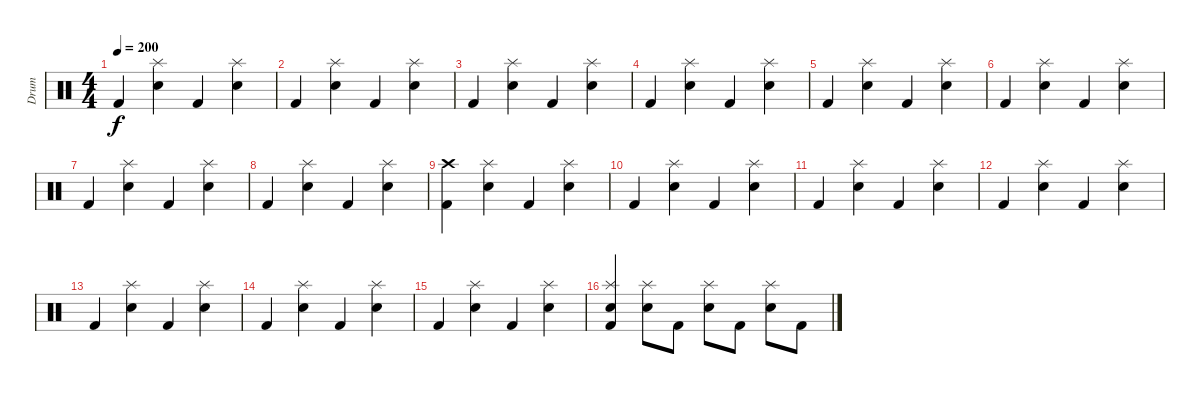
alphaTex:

\track ("Drum" "Drum") {instrument percussion}
\staff {score}
\articulation defaults
\ts (4 4)
\tempo 200
\clef neutral
\ks c "Kick (hit) 2".4{dy f}
("Splash (hit)" "Electric Snare (hit)").4 "Kick (hit) 2".4 ("Splash (hit)" "Electric Snare (hit)").4 |
"Kick (hit) 2".4 ("Splash (hit)" "Electric Snare (hit)").4 "Kick (hit) 2".4 ("Splash (hit)" "Electric Snare (hit)").4 |
"Kick (hit) 2".4 ("Splash (hit)" "Electric Snare (hit)").4 "Kick (hit) 2".4 ("Splash (hit)" "Electric Snare (hit)").4 |
"Kick (hit) 2".4 ("Splash (hit)" "Electric Snare (hit)").4 "Kick (hit) 2".4 ("Splash (hit)" "Electric Snare (hit)").4 |
"Kick (hit) 2".4 ("Splash (hit)" "Electric Snare (hit)").4 "Kick (hit) 2".4 ("Splash (hit)" "Electric Snare (hit)").4 |
"Kick (hit) 2".4 ("Splash (hit)" "Electric Snare (hit)").4 "Kick (hit) 2".4 ("Splash (hit)" "Electric Snare (hit)").4 |
"Kick (hit) 2".4 ("Splash (hit)" "Electric Snare (hit)").4 "Kick (hit) 2".4 ("Splash (hit)" "Electric Snare (hit)").4 |
"Kick (hit) 2".4 ("Splash (hit)" "Electric Snare (hit)").4 "Kick (hit) 2".4 ("Splash (hit)" "Electric Snare (hit)").4 |
("Crash high (hit)" "Kick (hit) 2").4 ("Splash (hit)" "Electric Snare (hit)").4 "Kick (hit) 2".4 ("Splash (hit)" "Electric Snare (hit)").4 |
"Kick (hit) 2".4 ("Splash (hit)" "Electric Snare (hit)").4 "Kick (hit) 2".4 ("Splash (hit)" "Electric Snare (hit)").4 |
"Kick (hit) 2".4 ("Splash (hit)" "Electric Snare (hit)").4 "Kick (hit) 2".4 ("Splash (hit)" "Electric Snare (hit)").4 |
"Kick (hit) 2".4 ("Splash (hit)" "Electric Snare (hit)").4 "Kick (hit) 2".4 ("Splash (hit)" "Electric Snare (hit)").4 |
"Kick (hit) 2".4 ("Splash (hit)" "Electric Snare (hit)").4 "Kick (hit) 2".4 ("Splash (hit)" "Electric Snare (hit)").4 |
"Kick (hit) 2".4 ("Splash (hit)" "Electric Snare (hit)").4 "Kick (hit) 2".4 ("Splash (hit)" "Electric Snare (hit)").4 |
"Kick (hit) 2".4 ("Splash (hit)" "Electric Snare (hit)").4 "Kick (hit) 2".4 ("Splash (hit)" "Electric Snare (hit)").4 |
("Splash (hit)" "Electric Snare (hit)" "Kick (hit) 2").4 ("Splash (hit)" "Electric Snare (hit)").8 "Kick (hit) 2".8 ("Splash (hit)" "Electric Snare (hit)").8 "Kick (hit) 2".8 ("Splash (hit)" "Electric Snare (hit)").8 "Kick (hit) 2".8
